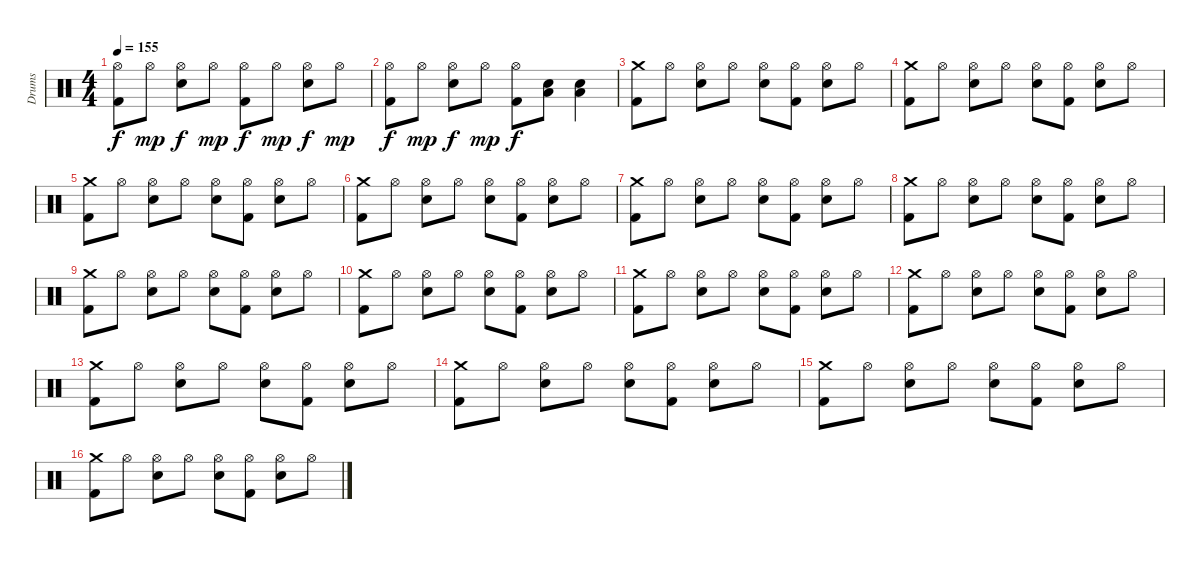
\track ("Drums" "Drums") {instrument percussion}
\staff {score}
\articulation defaults
\ts (4 4)
\tempo 155
\clef neutral
\ks c
("Hi-Hat (open)" "Kick (hit) 2").8{dy f} "Hi-Hat (open)".8{dy mp} ("Hi-Hat (open)" "Snare (hit) 2").8{dy f} "Hi-Hat (open)".8{dy mp} ("Hi-Hat (open)" "Kick (hit) 2").8{dy f} "Hi-Hat (open)".8{dy mp} ("Hi-Hat (open)" "Snare (hit) 2").8{dy f} "Hi-Hat (open)".8{dy mp} |
("Hi-Hat (open)" "Kick (hit) 2").8{dy f} "Hi-Hat (open)".8{dy mp} ("Hi-Hat (open)" "Snare (hit) 2").8{dy f} "Hi-Hat (open)".8{dy mp} ("Hi-Hat (open)" "Kick (hit) 2").8{dy f} ("Low Tom (hit)" "Snare (hit) 2").8 ("Low Tom (hit)" "Snare (hit) 2").4 |
("Crash medium (hit)" "Kick (hit) 2").8 "Hi-Hat (open)".8 ("Hi-Hat (open)" "Snare (hit) 2").8 "Hi-Hat (open)".8 ("Hi-Hat (open)" "Snare (hit) 2").8 ("Hi-Hat (open)" "Kick (hit) 2").8 ("Hi-Hat (open)" "Snare (hit) 2").8 "Hi-Hat (open)".8 |
("Crash medium (hit)" "Kick (hit) 2").8 "Hi-Hat (open)".8 ("Hi-Hat (open)" "Snare (hit) 2").8 "Hi-Hat (open)".8 ("Hi-Hat (open)" "Snare (hit) 2").8 ("Hi-Hat (open)" "Kick (hit) 2").8 ("Hi-Hat (open)" "Snare (hit) 2").8 "Hi-Hat (open)".8 |
("Crash medium (hit)" "Kick (hit) 2").8 "Hi-Hat (open)".8 ("Hi-Hat (open)" "Snare (hit) 2").8 "Hi-Hat (open)".8 ("Hi-Hat (open)" "Snare (hit) 2").8 ("Hi-Hat (open)" "Kick (hit) 2").8 ("Hi-Hat (open)" "Snare (hit) 2").8 "Hi-Hat (open)".8 |
("Crash medium (hit)" "Kick (hit) 2").8 "Hi-Hat (open)".8 ("Hi-Hat (open)" "Snare (hit) 2").8 "Hi-Hat (open)".8 ("Hi-Hat (open)" "Snare (hit) 2").8 ("Hi-Hat (open)" "Kick (hit) 2").8 ("Hi-Hat (open)" "Snare (hit) 2").8 "Hi-Hat (open)".8 |
("Crash medium (hit)" "Kick (hit) 2").8 "Hi-Hat (open)".8 ("Hi-Hat (open)" "Snare (hit) 2").8 "Hi-Hat (open)".8 ("Hi-Hat (open)" "Snare (hit) 2").8 ("Hi-Hat (open)" "Kick (hit) 2").8 ("Hi-Hat (open)" "Snare (hit) 2").8 "Hi-Hat (open)".8 |
("Crash medium (hit)" "Kick (hit) 2").8 "Hi-Hat (open)".8 ("Hi-Hat (open)" "Snare (hit) 2").8 "Hi-Hat (open)".8 ("Hi-Hat (open)" "Snare (hit) 2").8 ("Hi-Hat (open)" "Kick (hit) 2").8 ("Hi-Hat (open)" "Snare (hit) 2").8 "Hi-Hat (open)".8 |
("Crash medium (hit)" "Kick (hit) 2").8 "Hi-Hat (open)".8 ("Hi-Hat (open)" "Snare (hit) 2").8 "Hi-Hat (open)".8 ("Hi-Hat (open)" "Snare (hit) 2").8 ("Hi-Hat (open)" "Kick (hit) 2").8 ("Hi-Hat (open)" "Snare (hit) 2").8 "Hi-Hat (open)".8 |
("Crash medium (hit)" "Kick (hit) 2").8 "Hi-Hat (open)".8 ("Hi-Hat (open)" "Snare (hit) 2").8 "Hi-Hat (open)".8 ("Hi-Hat (open)" "Snare (hit) 2").8 ("Hi-Hat (open)" "Kick (hit) 2").8 ("Hi-Hat (open)" "Snare (hit) 2").8 "Hi-Hat (open)".8 |
("Crash medium (hit)" "Kick (hit) 2").8 "Hi-Hat (open)".8 ("Hi-Hat (open)" "Snare (hit) 2").8 "Hi-Hat (open)".8 ("Hi-Hat (open)" "Snare (hit) 2").8 ("Hi-Hat (open)" "Kick (hit) 2").8 ("Hi-Hat (open)" "Snare (hit) 2").8 "Hi-Hat (open)".8 |
("Crash medium (hit)" "Kick (hit) 2").8 "Hi-Hat (open)".8 ("Hi-Hat (open)" "Snare (hit) 2").8 "Hi-Hat (open)".8 ("Hi-Hat (open)" "Snare (hit) 2").8 ("Hi-Hat (open)" "Kick (hit) 2").8 ("Hi-Hat (open)" "Snare (hit) 2").8 "Hi-Hat (open)".8 |
("Crash medium (hit)" "Kick (hit) 2").8 "Hi-Hat (open)".8 ("Hi-Hat (open)" "Snare (hit) 2").8 "Hi-Hat (open)".8 ("Hi-Hat (open)" "Snare (hit) 2").8 ("Hi-Hat (open)" "Kick (hit) 2").8 ("Hi-Hat (open)" "Snare (hit) 2").8 "Hi-Hat (open)".8 |
("Crash medium (hit)" "Kick (hit) 2").8 "Hi-Hat (open)".8 ("Hi-Hat (open)" "Snare (hit) 2").8 "Hi-Hat (open)".8 ("Hi-Hat (open)" "Snare (hit) 2").8 ("Hi-Hat (open)" "Kick (hit) 2").8 ("Hi-Hat (open)" "Snare (hit) 2").8 "Hi-Hat (open)".8 |
("Crash medium (hit)" "Kick (hit) 2").8 "Hi-Hat (open)".8 ("Hi-Hat (open)" "Snare (hit) 2").8 "Hi-Hat (open)".8 ("Hi-Hat (open)" "Snare (hit) 2").8 ("Hi-Hat (open)" "Kick (hit) 2").8 ("Hi-Hat (open)" "Snare (hit) 2").8 "Hi-Hat (open)".8 |
("Crash medium (hit)" "Kick (hit) 2").8 "Hi-Hat (open)".8 ("Hi-Hat (open)" "Snare (hit) 2").8 "Hi-Hat (open)".8 ("Hi-Hat (open)" "Snare (hit) 2").8 ("Hi-Hat (open)" "Kick (hit) 2").8 ("Hi-Hat (open)" "Snare (hit) 2").8 "Hi-Hat (open)".8
